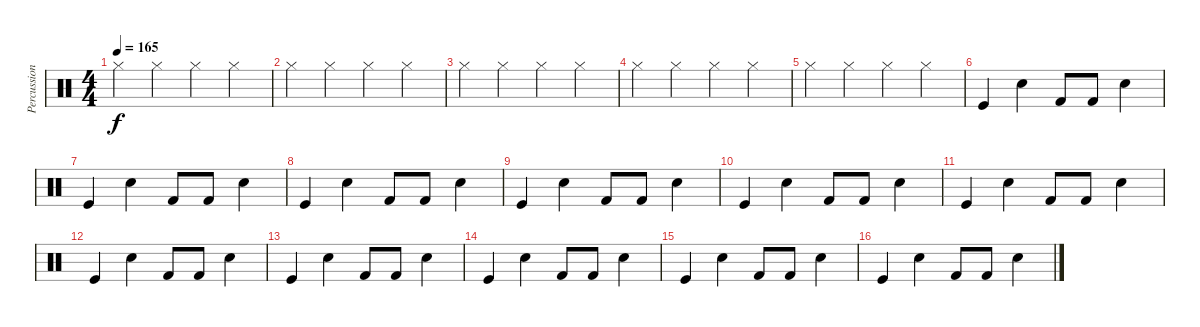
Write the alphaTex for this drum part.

\track ("Percussions" "Percussion") {instrument percussion}
\staff {score}
\articulation defaults
\ts (4 4)
\tempo 165
\clef neutral
\ks c "Hi-Hat (closed)".4{dy f} "Hi-Hat (closed)".4 "Hi-Hat (closed)".4 "Hi-Hat (closed)".4
|
"Hi-Hat (closed)".4 "Hi-Hat (closed)".4 "Hi-Hat (closed)".4 "Hi-Hat (closed)".4 |
"Hi-Hat (closed)".4 "Hi-Hat (closed)".4 "Hi-Hat (closed)".4 "Hi-Hat (closed)".4 |
"Hi-Hat (closed)".4 "Hi-Hat (closed)".4 "Hi-Hat (closed)".4 "Hi-Hat (closed)".4 |
"Hi-Hat (closed)".4 "Hi-Hat (closed)".4 "Hi-Hat (closed)".4 "Hi-Hat (closed)".4 |
"Kick (hit)".4 "Snare (hit) 2".4 "Kick (hit) 2".8 "Kick (hit) 2".8 "Snare (hit) 2".4 |
"Kick (hit)".4 "Snare (hit) 2".4 "Kick (hit) 2".8 "Kick (hit) 2".8 "Snare (hit) 2".4 |
"Kick (hit)".4 "Snare (hit) 2".4 "Kick (hit) 2".8 "Kick (hit) 2".8 "Snare (hit) 2".4 |
"Kick (hit)".4 "Snare (hit) 2".4 "Kick (hit) 2".8 "Kick (hit) 2".8 "Snare (hit) 2".4 |
"Kick (hit)".4 "Snare (hit) 2".4 "Kick (hit) 2".8 "Kick (hit) 2".8 "Snare (hit) 2".4 |
"Kick (hit)".4 "Snare (hit) 2".4 "Kick (hit) 2".8 "Kick (hit) 2".8 "Snare (hit) 2".4 |
"Kick (hit)".4 "Snare (hit) 2".4 "Kick (hit) 2".8 "Kick (hit) 2".8 "Snare (hit) 2".4 |
"Kick (hit)".4 "Snare (hit) 2".4 "Kick (hit) 2".8 "Kick (hit) 2".8 "Snare (hit) 2".4 |
"Kick (hit)".4 "Snare (hit) 2".4 "Kick (hit) 2".8 "Kick (hit) 2".8 "Snare (hit) 2".4 |
"Kick (hit)".4 "Snare (hit) 2".4 "Kick (hit) 2".8 "Kick (hit) 2".8 "Snare (hit) 2".4 |
"Kick (hit)".4 "Snare (hit) 2".4 "Kick (hit) 2".8 "Kick (hit) 2".8 "Snare (hit) 2".4
